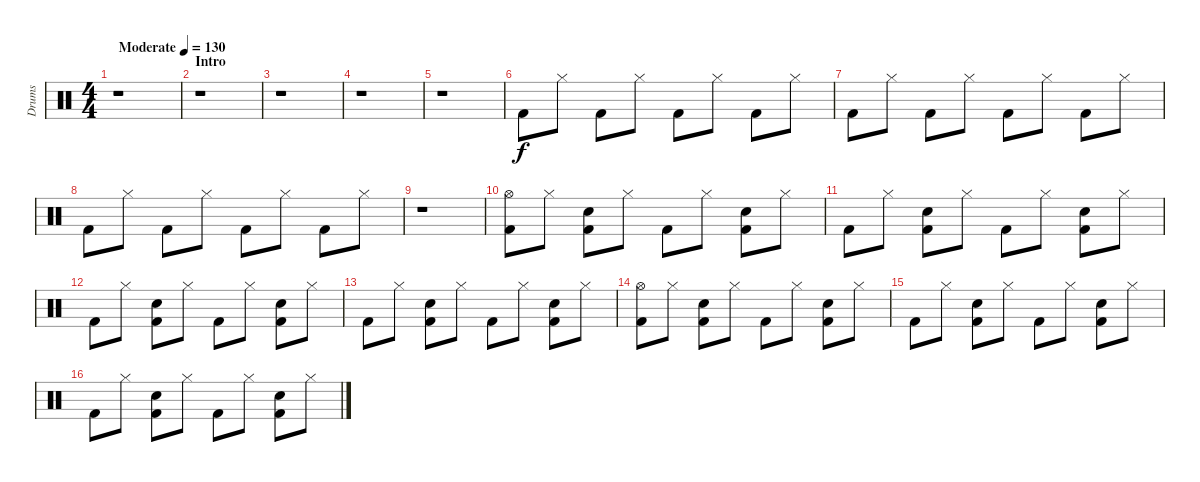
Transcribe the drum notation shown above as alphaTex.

\track ("Drums" "Drums") {instrument percussion}
\staff {score}
\articulation defaults
\ts (4 4)
\tempo (130 "Moderate")
\clef neutral
\ks c
r.1{dy f} |
\section ("" "Intro")
r.1 |
r.1 |
r.1 |
r.1 |
"Kick (hit) 2".8 "Hi-Hat (closed)".8 "Kick (hit) 2".8 "Hi-Hat (closed)".8 "Kick (hit) 2".8 "Hi-Hat (closed)".8 "Kick (hit) 2".8 "Hi-Hat (closed)".8 |
"Kick (hit) 2".8 "Hi-Hat (closed)".8 "Kick (hit) 2".8 "Hi-Hat (closed)".8 "Kick (hit) 2".8 "Hi-Hat (closed)".8 "Kick (hit) 2".8 "Hi-Hat (closed)".8 |
"Kick (hit) 2".8 "Hi-Hat (closed)".8 "Kick (hit) 2".8 "Hi-Hat (closed)".8 "Kick (hit) 2".8 "Hi-Hat (closed)".8 "Kick (hit) 2".8 "Hi-Hat (closed)".8 |
r.1 |
("Hi-Hat (open)" "Kick (hit) 2").8 "Hi-Hat (closed)".8 ("Snare (hit) 2" "Kick (hit) 2").8 "Hi-Hat (closed)".8 "Kick (hit) 2".8 "Hi-Hat (closed)".8 ("Snare (hit) 2" "Kick (hit) 2").8 "Hi-Hat (closed)".8 |
"Kick (hit) 2".8 "Hi-Hat (closed)".8 ("Snare (hit) 2" "Kick (hit) 2").8 "Hi-Hat (closed)".8 "Kick (hit) 2".8 "Hi-Hat (closed)".8 ("Snare (hit) 2" "Kick (hit) 2").8 "Hi-Hat (closed)".8 |
"Kick (hit) 2".8 "Hi-Hat (closed)".8 ("Snare (hit) 2" "Kick (hit) 2").8 "Hi-Hat (closed)".8 "Kick (hit) 2".8 "Hi-Hat (closed)".8 ("Snare (hit) 2" "Kick (hit) 2").8 "Hi-Hat (closed)".8 |
"Kick (hit) 2".8 "Hi-Hat (closed)".8 ("Snare (hit) 2" "Kick (hit) 2").8 "Hi-Hat (closed)".8 "Kick (hit) 2".8 "Hi-Hat (closed)".8 ("Snare (hit) 2" "Kick (hit) 2").8 "Hi-Hat (closed)".8 |
("Hi-Hat (open)" "Kick (hit) 2").8 "Hi-Hat (closed)".8 ("Snare (hit) 2" "Kick (hit) 2").8 "Hi-Hat (closed)".8 "Kick (hit) 2".8 "Hi-Hat (closed)".8 ("Snare (hit) 2" "Kick (hit) 2").8 "Hi-Hat (closed)".8 |
"Kick (hit) 2".8 "Hi-Hat (closed)".8 ("Snare (hit) 2" "Kick (hit) 2").8 "Hi-Hat (closed)".8 "Kick (hit) 2".8 "Hi-Hat (closed)".8 ("Snare (hit) 2" "Kick (hit) 2").8 "Hi-Hat (closed)".8 |
"Kick (hit) 2".8 "Hi-Hat (closed)".8 ("Snare (hit) 2" "Kick (hit) 2").8 "Hi-Hat (closed)".8 "Kick (hit) 2".8 "Hi-Hat (closed)".8 ("Snare (hit) 2" "Kick (hit) 2").8 "Hi-Hat (closed)".8
